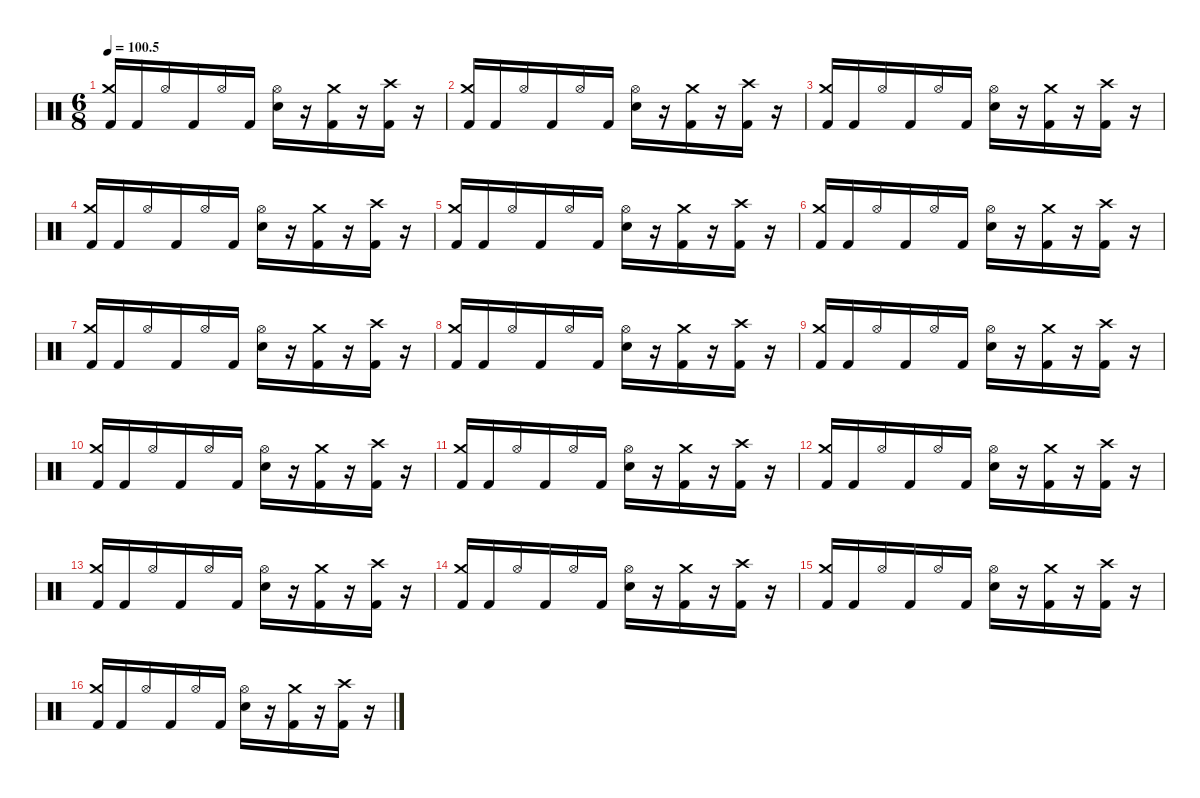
\defaultSystemsLayout 4
\hideDynamics
\bracketExtendMode nobrackets
\singleTrackTrackNamePolicy hidden
\multiTrackTrackNamePolicy hidden
\firstSystemTrackNameMode fullname
\firstSystemTrackNameOrientation horizontal
\otherSystemsTrackNameOrientation horizontal
\track ("Drums" "drm.") {instrument percussion}
\staff {score}
\articulation defaults
\ts (6 8)
\tempo
100.5
\accidentals auto
\clef neutral
\ottava regular
\simile none
\ks c
("Crash medium (hit)" "Kick (hit) 2").16{dy f beam Up} "Kick (hit) 2".16{beam Up} "Hi-Hat (open)".16{beam Up} "Kick (hit) 2".16{beam Up} "Hi-Hat (open)".16{beam Up} "Kick (hit) 2".16{beam Up} ("Hi-Hat (open)" "Snare (hit) 2").16{beam Down} r.16{beam Down} ("Crash medium (hit)" "Kick (hit) 2").16{beam Down} r.16{beam Down} ("Crash high (hit)" "Kick (hit) 2").16{beam Down} r.16{beam Down} |
("Crash medium (hit)" "Kick (hit) 2").16{beam Up} "Kick (hit) 2".16{beam Up} "Hi-Hat (open)".16{beam Up} "Kick (hit) 2".16{beam Up} "Hi-Hat (open)".16{beam Up} "Kick (hit) 2".16{beam Up} ("Hi-Hat (open)" "Snare (hit) 2").16{beam Down} r.16{beam Down} ("Crash medium (hit)" "Kick (hit) 2").16{beam Down} r.16{beam Down} ("Crash high (hit)" "Kick (hit) 2").16{beam Down} r.16{beam Down} |
("Crash medium (hit)" "Kick (hit) 2").16{beam Up} "Kick (hit) 2".16{beam Up} "Hi-Hat (open)".16{beam Up} "Kick (hit) 2".16{beam Up} "Hi-Hat (open)".16{beam Up} "Kick (hit) 2".16{beam Up} ("Hi-Hat (open)" "Snare (hit) 2").16{beam Down} r.16{beam Down} ("Crash medium (hit)" "Kick (hit) 2").16{beam Down} r.16{beam Down} ("Crash high (hit)" "Kick (hit) 2").16{beam Down} r.16{beam Down} |
("Crash medium (hit)" "Kick (hit) 2").16{beam Up} "Kick (hit) 2".16{beam Up} "Hi-Hat (open)".16{beam Up} "Kick (hit) 2".16{beam Up} "Hi-Hat (open)".16{beam Up} "Kick (hit) 2".16{beam Up} ("Hi-Hat (open)" "Snare (hit) 2").16{beam Down} r.16{beam Down} ("Crash medium (hit)" "Kick (hit) 2").16{beam Down} r.16{beam Down} ("Crash high (hit)" "Kick (hit) 2").16{beam Down} r.16{beam Down} |
("Crash medium (hit)" "Kick (hit) 2").16{beam Up} "Kick (hit) 2".16{beam Up} "Hi-Hat (open)".16{beam Up} "Kick (hit) 2".16{beam Up} "Hi-Hat (open)".16{beam Up} "Kick (hit) 2".16{beam Up} ("Hi-Hat (open)" "Snare (hit) 2").16{beam Down} r.16{beam Down} ("Crash medium (hit)" "Kick (hit) 2").16{beam Down} r.16{beam Down} ("Crash high (hit)" "Kick (hit) 2").16{beam Down} r.16{beam Down} |
("Crash medium (hit)" "Kick (hit) 2").16{beam Up} "Kick (hit) 2".16{beam Up} "Hi-Hat (open)".16{beam Up} "Kick (hit) 2".16{beam Up} "Hi-Hat (open)".16{beam Up} "Kick (hit) 2".16{beam Up} ("Hi-Hat (open)" "Snare (hit) 2").16{beam Down} r.16{beam Down} ("Crash medium (hit)" "Kick (hit) 2").16{beam Down} r.16{beam Down} ("Crash high (hit)" "Kick (hit) 2").16{beam Down} r.16{beam Down} |
("Crash medium (hit)" "Kick (hit) 2").16{beam Up} "Kick (hit) 2".16{beam Up} "Hi-Hat (open)".16{beam Up} "Kick (hit) 2".16{beam Up} "Hi-Hat (open)".16{beam Up} "Kick (hit) 2".16{beam Up} ("Hi-Hat (open)" "Snare (hit) 2").16{beam Down} r.16{beam Down} ("Crash medium (hit)" "Kick (hit) 2").16{beam Down} r.16{beam Down} ("Crash high (hit)" "Kick (hit) 2").16{beam Down} r.16{beam Down} |
("Crash medium (hit)" "Kick (hit) 2").16{beam Up} "Kick (hit) 2".16{beam Up} "Hi-Hat (open)".16{beam Up} "Kick (hit) 2".16{beam Up} "Hi-Hat (open)".16{beam Up} "Kick (hit) 2".16{beam Up} ("Hi-Hat (open)" "Snare (hit) 2").16{beam Down} r.16{beam Down} ("Crash medium (hit)" "Kick (hit) 2").16{beam Down} r.16{beam Down} ("Crash high (hit)" "Kick (hit) 2").16{beam Down} r.16{beam Down} |
("Crash medium (hit)" "Kick (hit) 2").16{beam Up} "Kick (hit) 2".16{beam Up} "Hi-Hat (open)".16{beam Up} "Kick (hit) 2".16{beam Up} "Hi-Hat (open)".16{beam Up} "Kick (hit) 2".16{beam Up} ("Hi-Hat (open)" "Snare (hit) 2").16{beam Down} r.16{beam Down} ("Crash medium (hit)" "Kick (hit) 2").16{beam Down} r.16{beam Down} ("Crash high (hit)" "Kick (hit) 2").16{beam Down} r.16{beam Down} |
("Crash medium (hit)" "Kick (hit) 2").16{beam Up} "Kick (hit) 2".16{beam Up} "Hi-Hat (open)".16{beam Up} "Kick (hit) 2".16{beam Up} "Hi-Hat (open)".16{beam Up} "Kick (hit) 2".16{beam Up} ("Hi-Hat (open)" "Snare (hit) 2").16{beam Down} r.16{beam Down} ("Crash medium (hit)" "Kick (hit) 2").16{beam Down} r.16{beam Down} ("Crash high (hit)" "Kick (hit) 2").16{beam Down} r.16{beam Down} |
("Crash medium (hit)" "Kick (hit) 2").16{beam Up} "Kick (hit) 2".16{beam Up} "Hi-Hat (open)".16{beam Up} "Kick (hit) 2".16{beam Up} "Hi-Hat (open)".16{beam Up} "Kick (hit) 2".16{beam Up} ("Hi-Hat (open)" "Snare (hit) 2").16{beam Down} r.16{beam Down} ("Crash medium (hit)" "Kick (hit) 2").16{beam Down} r.16{beam Down} ("Crash high (hit)" "Kick (hit) 2").16{beam Down} r.16{beam Down} |
("Crash medium (hit)" "Kick (hit) 2").16{beam Up} "Kick (hit) 2".16{beam Up} "Hi-Hat (open)".16{beam Up} "Kick (hit) 2".16{beam Up} "Hi-Hat (open)".16{beam Up} "Kick (hit) 2".16{beam Up} ("Hi-Hat (open)" "Snare (hit) 2").16{beam Down} r.16{beam Down} ("Crash medium (hit)" "Kick (hit) 2").16{beam Down} r.16{beam Down} ("Crash high (hit)" "Kick (hit) 2").16{beam Down} r.16{beam Down} |
("Crash medium (hit)" "Kick (hit) 2").16{beam Up} "Kick (hit) 2".16{beam Up} "Hi-Hat (open)".16{beam Up} "Kick (hit) 2".16{beam Up} "Hi-Hat (open)".16{beam Up} "Kick (hit) 2".16{beam Up} ("Hi-Hat (open)" "Snare (hit) 2").16{beam Down} r.16{beam Down} ("Crash medium (hit)" "Kick (hit) 2").16{beam Down} r.16{beam Down} ("Crash high (hit)" "Kick (hit) 2").16{beam Down} r.16{beam Down} |
("Crash medium (hit)" "Kick (hit) 2").16{beam Up} "Kick (hit) 2".16{beam Up} "Hi-Hat (open)".16{beam Up} "Kick (hit) 2".16{beam Up} "Hi-Hat (open)".16{beam Up} "Kick (hit) 2".16{beam Up} ("Hi-Hat (open)" "Snare (hit) 2").16{beam Down} r.16{beam Down} ("Crash medium (hit)" "Kick (hit) 2").16{beam Down} r.16{beam Down} ("Crash high (hit)" "Kick (hit) 2").16{beam Down} r.16{beam Down} |
("Crash medium (hit)" "Kick (hit) 2").16{beam Up} "Kick (hit) 2".16{beam Up} "Hi-Hat (open)".16{beam Up} "Kick (hit) 2".16{beam Up} "Hi-Hat (open)".16{beam Up} "Kick (hit) 2".16{beam Up} ("Hi-Hat (open)" "Snare (hit) 2").16{beam Down} r.16{beam Down} ("Crash medium (hit)" "Kick (hit) 2").16{beam Down} r.16{beam Down} ("Crash high (hit)" "Kick (hit) 2").16{beam Down} r.16{beam Down} |
("Crash medium (hit)" "Kick (hit) 2").16{beam Up} "Kick (hit) 2".16{beam Up} "Hi-Hat (open)".16{beam Up} "Kick (hit) 2".16{beam Up} "Hi-Hat (open)".16{beam Up} "Kick (hit) 2".16{beam Up} ("Hi-Hat (open)" "Snare (hit) 2").16{beam Down} r.16{beam Down} ("Crash medium (hit)" "Kick (hit) 2").16{beam Down} r.16{beam Down} ("Crash high (hit)" "Kick (hit) 2").16{beam Down} r.16{beam Down}
